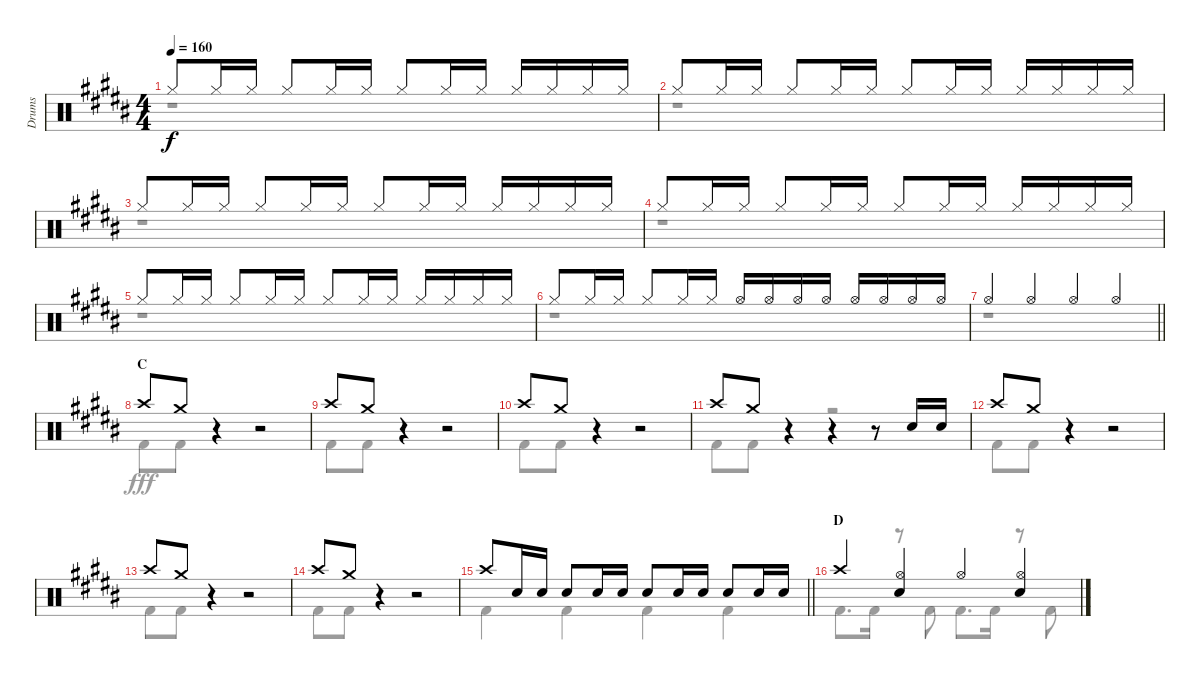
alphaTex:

\track ("Drums" "Drums") {instrument percussion}
\staff {score}
\articulation defaults
\voice
\ts (4 4)
\tempo 160
\clef neutral
\ks b "Hi-Hat (closed)".8{dy f} "Hi-Hat (closed)".16 "Hi-Hat (closed)".16 "Hi-Hat (closed)".8 "Hi-Hat (closed)".16 "Hi-Hat (closed)".16 "Hi-Hat (closed)".8 "Hi-Hat (closed)".16 "Hi-Hat (closed)".16 "Hi-Hat (closed)".16 "Hi-Hat (closed)".16 "Hi-Hat (closed)".16 "Hi-Hat (closed)".16
|
"Hi-Hat (closed)".8 "Hi-Hat (closed)".16 "Hi-Hat (closed)".16 "Hi-Hat (closed)".8 "Hi-Hat (closed)".16 "Hi-Hat (closed)".16 "Hi-Hat (closed)".8 "Hi-Hat (closed)".16 "Hi-Hat (closed)".16 "Hi-Hat (closed)".16 "Hi-Hat (closed)".16 "Hi-Hat (closed)".16 "Hi-Hat (closed)".16 |
"Hi-Hat (closed)".8 "Hi-Hat (closed)".16 "Hi-Hat (closed)".16 "Hi-Hat (closed)".8 "Hi-Hat (closed)".16 "Hi-Hat (closed)".16 "Hi-Hat (closed)".8 "Hi-Hat (closed)".16 "Hi-Hat (closed)".16 "Hi-Hat (closed)".16 "Hi-Hat (closed)".16 "Hi-Hat (closed)".16 "Hi-Hat (closed)".16 |
"Hi-Hat (closed)".8 "Hi-Hat (closed)".16 "Hi-Hat (closed)".16 "Hi-Hat (closed)".8 "Hi-Hat (closed)".16 "Hi-Hat (closed)".16 "Hi-Hat (closed)".8 "Hi-Hat (closed)".16 "Hi-Hat (closed)".16 "Hi-Hat (closed)".16 "Hi-Hat (closed)".16 "Hi-Hat (closed)".16 "Hi-Hat (closed)".16 |
"Hi-Hat (closed)".8 "Hi-Hat (closed)".16 "Hi-Hat (closed)".16 "Hi-Hat (closed)".8 "Hi-Hat (closed)".16 "Hi-Hat (closed)".16 "Hi-Hat (closed)".8 "Hi-Hat (closed)".16 "Hi-Hat (closed)".16 "Hi-Hat (closed)".16 "Hi-Hat (closed)".16 "Hi-Hat (closed)".16 "Hi-Hat (closed)".16 |
"Hi-Hat (closed)".8 "Hi-Hat (closed)".16 "Hi-Hat (closed)".16 "Hi-Hat (closed)".8 "Hi-Hat (closed)".16 "Hi-Hat (closed)".16 "Hi-Hat (open)".16 "Hi-Hat (open)".16 "Hi-Hat (open)".16 "Hi-Hat (open)".16 "Hi-Hat (open)".16 "Hi-Hat (open)".16 "Hi-Hat (open)".16 "Hi-Hat (open)".16 |
\barLineRight lightlight "Hi-Hat (open)".4 "Hi-Hat (open)".4 "Hi-Hat (open)".4 "Hi-Hat (open)".4
|
\section ("" "C")
"Crash high (hit)".8 "Crash medium (hit)".8 r.4 r.2 |
"Crash high (hit)".8 "Crash medium (hit)".8 r.4 r.2 |
"Crash high (hit)".8 "Crash medium (hit)".8 r.4 r.2 |
"Crash high (hit)".8 "Crash medium (hit)".8 r.4 r.4 r.8 "Snare (hit) 2".16 "Snare (hit) 2".16 |
"Crash high (hit)".8 "Crash medium (hit)".8 r.4 r.2 |
"Crash high (hit)".8 "Crash medium (hit)".8 r.4 r.2 |
"Crash high (hit)".8 "Crash medium (hit)".8 r.4 r.2 |
\barLineRight lightlight "Crash high (hit)".8 "Snare (hit) 2".16 "Snare (hit) 2".16 "Snare (hit) 2".8 "Snare (hit) 2".16 "Snare (hit) 2".16 "Snare (hit) 2".8 "Snare (hit) 2".16 "Snare (hit) 2".16 "Snare (hit) 2".8 "Snare (hit) 2".16 "Snare (hit) 2".16
|
\section ("" "D")
"Crash high (hit)".4 ("Hi-Hat (open)" "Snare (hit) 2").4 "Hi-Hat (open)".4 ("Hi-Hat (open)" "Snare (hit) 2").4
\voice
\clef neutral
\ottava regular
\simile none
\ks b
r.1{dy fff} |
r.1 |
r.1 |
r.1 |
r.1 |
r.1 |
\barLineRight lightlight
r.1 |
"Kick (hit) 2".8 "Kick (hit) 2".8 r.4 r.2 |
"Kick (hit) 2".8 "Kick (hit) 2".8 r.4 r.2 |
"Kick (hit) 2".8 "Kick (hit) 2".8 r.4 r.2 |
"Kick (hit) 2".8 "Kick (hit) 2".8 r.4 r.2 |
"Kick (hit) 2".8 "Kick (hit) 2".8 r.4 r.2 |
"Kick (hit) 2".8 "Kick (hit) 2".8 r.4 r.2 |
"Kick (hit) 2".8 "Kick (hit) 2".8 r.4 r.2 |
\barLineRight lightlight "Kick (hit) 2".4 "Kick (hit) 2".4 "Kick (hit) 2".4 "Kick (hit) 2".4
|
"Kick (hit) 2".8{d} "Kick (hit) 2".16 r.8 "Kick (hit) 2".8 "Kick (hit) 2".8{d} "Kick (hit) 2".16 r.8 "Kick (hit) 2".8
